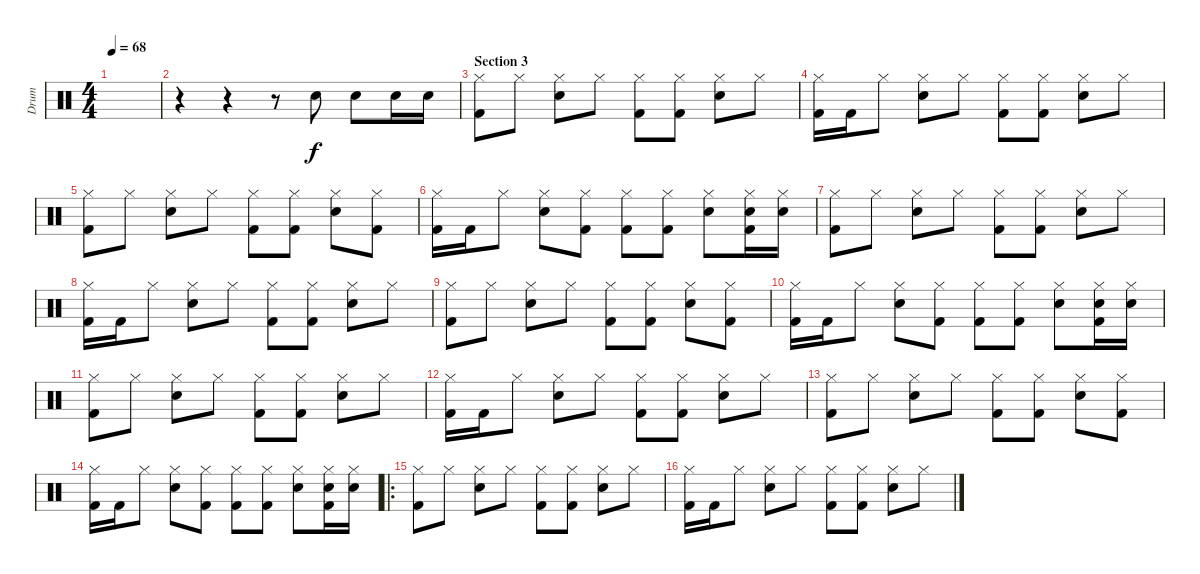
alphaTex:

\track ("Drum" "Drum") {instrument percussion}
\staff {score}
\articulation defaults
\ts (4 4)
\tempo 68
\clef neutral
\ks c
|
r.4 r.4 r.8 "Snare (hit) 2".8 "Snare (hit) 2".8 "Snare (hit) 2".16 "Snare (hit) 2".16 |
\section ("" "Section 3")
("Hi-Hat (closed)" "Kick (hit) 2").8 "Hi-Hat (closed)".8 ("Hi-Hat (closed)" "Snare (hit) 2").8 "Hi-Hat (closed)".8 ("Hi-Hat (closed)" "Kick (hit) 2").8 ("Hi-Hat (closed)" "Kick (hit) 2").8 ("Hi-Hat (closed)" "Snare (hit) 2").8 "Hi-Hat (closed)".8 |
("Hi-Hat (closed)" "Kick (hit) 2").16 "Kick (hit) 2".16 "Hi-Hat (closed)".8 ("Hi-Hat (closed)" "Snare (hit) 2").8 "Hi-Hat (closed)".8 ("Hi-Hat (closed)" "Kick (hit) 2").8 ("Hi-Hat (closed)" "Kick (hit) 2").8 ("Hi-Hat (closed)" "Snare (hit) 2").8 "Hi-Hat (closed)".8 |
("Hi-Hat (closed)" "Kick (hit) 2").8 "Hi-Hat (closed)".8 ("Hi-Hat (closed)" "Snare (hit) 2").8 "Hi-Hat (closed)".8 ("Hi-Hat (closed)" "Kick (hit) 2").8 ("Hi-Hat (closed)" "Kick (hit) 2").8 ("Hi-Hat (closed)" "Snare (hit) 2").8 ("Hi-Hat (closed)" "Kick (hit) 2").8 |
("Hi-Hat (closed)" "Kick (hit) 2").16 "Kick (hit) 2".16 "Hi-Hat (closed)".8 ("Hi-Hat (closed)" "Snare (hit) 2").8 ("Hi-Hat (closed)" "Kick (hit) 2").8 ("Hi-Hat (closed)" "Kick (hit) 2").8 ("Hi-Hat (closed)" "Kick (hit) 2").8 ("Hi-Hat (closed)" "Snare (hit) 2").8 ("Hi-Hat (closed)" "Snare (hit) 2" "Kick (hit) 2").16 ("Hi-Hat (closed)" "Snare (hit) 2").16 |
("Hi-Hat (closed)" "Kick (hit) 2").8 "Hi-Hat (closed)".8 ("Hi-Hat (closed)" "Snare (hit) 2").8 "Hi-Hat (closed)".8 ("Hi-Hat (closed)" "Kick (hit) 2").8 ("Hi-Hat (closed)" "Kick (hit) 2").8 ("Hi-Hat (closed)" "Snare (hit) 2").8 "Hi-Hat (closed)".8 |
("Hi-Hat (closed)" "Kick (hit) 2").16 "Kick (hit) 2".16 "Hi-Hat (closed)".8 ("Hi-Hat (closed)" "Snare (hit) 2").8 "Hi-Hat (closed)".8 ("Hi-Hat (closed)" "Kick (hit) 2").8 ("Hi-Hat (closed)" "Kick (hit) 2").8 ("Hi-Hat (closed)" "Snare (hit) 2").8 "Hi-Hat (closed)".8 |
("Hi-Hat (closed)" "Kick (hit) 2").8 "Hi-Hat (closed)".8 ("Hi-Hat (closed)" "Snare (hit) 2").8 "Hi-Hat (closed)".8 ("Hi-Hat (closed)" "Kick (hit) 2").8 ("Hi-Hat (closed)" "Kick (hit) 2").8 ("Hi-Hat (closed)" "Snare (hit) 2").8 ("Hi-Hat (closed)" "Kick (hit) 2").8 |
("Hi-Hat (closed)" "Kick (hit) 2").16 "Kick (hit) 2".16 "Hi-Hat (closed)".8 ("Hi-Hat (closed)" "Snare (hit) 2").8 ("Hi-Hat (closed)" "Kick (hit) 2").8 ("Hi-Hat (closed)" "Kick (hit) 2").8 ("Hi-Hat (closed)" "Kick (hit) 2").8 ("Hi-Hat (closed)" "Snare (hit) 2").8 ("Hi-Hat (closed)" "Snare (hit) 2" "Kick (hit) 2").16 ("Hi-Hat (closed)" "Snare (hit) 2").16 |
("Hi-Hat (closed)" "Kick (hit) 2").8 "Hi-Hat (closed)".8 ("Hi-Hat (closed)" "Snare (hit) 2").8 "Hi-Hat (closed)".8 ("Hi-Hat (closed)" "Kick (hit) 2").8 ("Hi-Hat (closed)" "Kick (hit) 2").8 ("Hi-Hat (closed)" "Snare (hit) 2").8 "Hi-Hat (closed)".8 |
("Hi-Hat (closed)" "Kick (hit) 2").16 "Kick (hit) 2".16 "Hi-Hat (closed)".8 ("Hi-Hat (closed)" "Snare (hit) 2").8 "Hi-Hat (closed)".8 ("Hi-Hat (closed)" "Kick (hit) 2").8 ("Hi-Hat (closed)" "Kick (hit) 2").8 ("Hi-Hat (closed)" "Snare (hit) 2").8 "Hi-Hat (closed)".8 |
("Hi-Hat (closed)" "Kick (hit) 2").8 "Hi-Hat (closed)".8 ("Hi-Hat (closed)" "Snare (hit) 2").8 "Hi-Hat (closed)".8 ("Hi-Hat (closed)" "Kick (hit) 2").8 ("Hi-Hat (closed)" "Kick (hit) 2").8 ("Hi-Hat (closed)" "Snare (hit) 2").8 ("Hi-Hat (closed)" "Kick (hit) 2").8 |
("Hi-Hat (closed)" "Kick (hit) 2").16 "Kick (hit) 2".16 "Hi-Hat (closed)".8 ("Hi-Hat (closed)" "Snare (hit) 2").8 ("Hi-Hat (closed)" "Kick (hit) 2").8 ("Hi-Hat (closed)" "Kick (hit) 2").8 ("Hi-Hat (closed)" "Kick (hit) 2").8 ("Hi-Hat (closed)" "Snare (hit) 2").8 ("Hi-Hat (closed)" "Snare (hit) 2" "Kick (hit) 2").16 ("Hi-Hat (closed)" "Snare (hit) 2").16 |
\ro
("Hi-Hat (closed)" "Kick (hit) 2").8 "Hi-Hat (closed)".8 ("Hi-Hat (closed)" "Snare (hit) 2").8 "Hi-Hat (closed)".8 ("Hi-Hat (closed)" "Kick (hit) 2").8 ("Hi-Hat (closed)" "Kick (hit) 2").8 ("Hi-Hat (closed)" "Snare (hit) 2").8 "Hi-Hat (closed)".8 |
("Hi-Hat (closed)" "Kick (hit) 2").16 "Kick (hit) 2".16 "Hi-Hat (closed)".8 ("Hi-Hat (closed)" "Snare (hit) 2").8 "Hi-Hat (closed)".8 ("Hi-Hat (closed)" "Kick (hit) 2").8 ("Hi-Hat (closed)" "Kick (hit) 2").8 ("Hi-Hat (closed)" "Snare (hit) 2").8 "Hi-Hat (closed)".8
